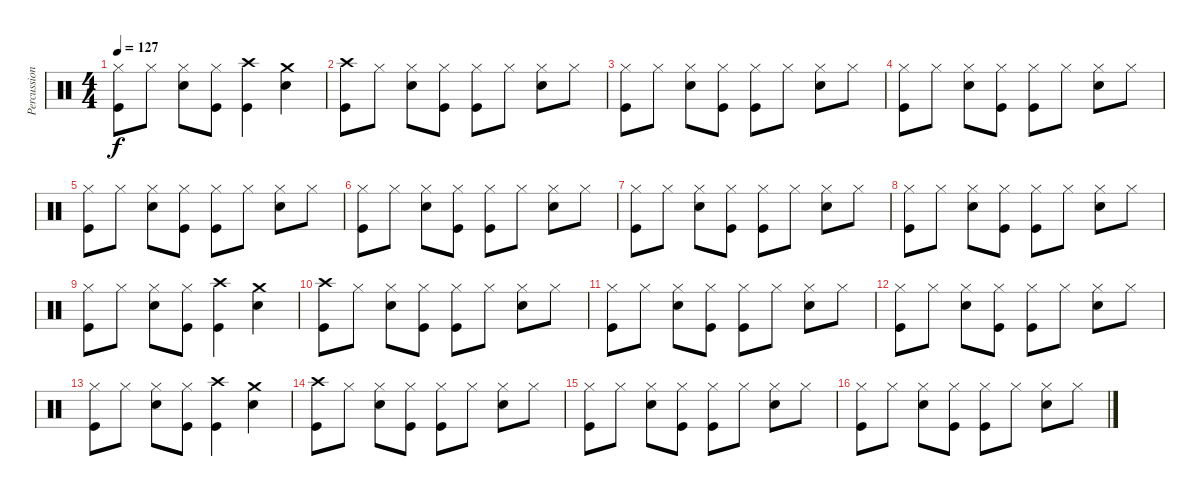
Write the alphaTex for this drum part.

\track ("Percussions" "Percussion") {instrument percussion}
\staff {score}
\articulation defaults
\ts (4 4)
\tempo 127
\clef neutral
\ks c
("Hi-Hat (closed)" "Kick (hit)").8{dy f} "Hi-Hat (closed)".8 ("Hi-Hat (closed)" "Snare (hit) 2").8 ("Hi-Hat (closed)" "Kick (hit)").8 ("Crash high (hit)" "Kick (hit)").4 ("Crash medium (hit)" "Snare (hit) 2").4 |
("Crash high (hit)" "Kick (hit)").8 "Hi-Hat (closed)".8 ("Hi-Hat (closed)" "Snare (hit) 2").8 ("Hi-Hat (closed)" "Kick (hit)").8 ("Hi-Hat (closed)" "Kick (hit)").8 "Hi-Hat (closed)".8 ("Hi-Hat (closed)" "Snare (hit) 2").8 "Hi-Hat (closed)".8 |
("Hi-Hat (closed)" "Kick (hit)").8 "Hi-Hat (closed)".8 ("Hi-Hat (closed)" "Snare (hit) 2").8 ("Hi-Hat (closed)" "Kick (hit)").8 ("Hi-Hat (closed)" "Kick (hit)").8 "Hi-Hat (closed)".8 ("Hi-Hat (closed)" "Snare (hit) 2").8 "Hi-Hat (closed)".8 |
("Hi-Hat (closed)" "Kick (hit)").8 "Hi-Hat (closed)".8 ("Hi-Hat (closed)" "Snare (hit) 2").8 ("Hi-Hat (closed)" "Kick (hit)").8 ("Hi-Hat (closed)" "Kick (hit)").8 "Hi-Hat (closed)".8 ("Hi-Hat (closed)" "Snare (hit) 2").8 "Hi-Hat (closed)".8 |
("Hi-Hat (closed)" "Kick (hit)").8 "Hi-Hat (closed)".8 ("Hi-Hat (closed)" "Snare (hit) 2").8 ("Hi-Hat (closed)" "Kick (hit)").8 ("Hi-Hat (closed)" "Kick (hit)").8 "Hi-Hat (closed)".8 ("Hi-Hat (closed)" "Snare (hit) 2").8 "Hi-Hat (closed)".8 |
("Hi-Hat (closed)" "Kick (hit)").8 "Hi-Hat (closed)".8 ("Hi-Hat (closed)" "Snare (hit) 2").8 ("Hi-Hat (closed)" "Kick (hit)").8 ("Hi-Hat (closed)" "Kick (hit)").8 "Hi-Hat (closed)".8 ("Hi-Hat (closed)" "Snare (hit) 2").8 "Hi-Hat (closed)".8 |
("Hi-Hat (closed)" "Kick (hit)").8 "Hi-Hat (closed)".8 ("Hi-Hat (closed)" "Snare (hit) 2").8 ("Hi-Hat (closed)" "Kick (hit)").8 ("Hi-Hat (closed)" "Kick (hit)").8 "Hi-Hat (closed)".8 ("Hi-Hat (closed)" "Snare (hit) 2").8 "Hi-Hat (closed)".8 |
("Hi-Hat (closed)" "Kick (hit)").8 "Hi-Hat (closed)".8 ("Hi-Hat (closed)" "Snare (hit) 2").8 ("Hi-Hat (closed)" "Kick (hit)").8 ("Hi-Hat (closed)" "Kick (hit)").8 "Hi-Hat (closed)".8 ("Hi-Hat (closed)" "Snare (hit) 2").8 "Hi-Hat (closed)".8 |
("Hi-Hat (closed)" "Kick (hit)").8 "Hi-Hat (closed)".8 ("Hi-Hat (closed)" "Snare (hit) 2").8 ("Hi-Hat (closed)" "Kick (hit)").8 ("Crash high (hit)" "Kick (hit)").4 ("Crash medium (hit)" "Snare (hit) 2").4 |
("Crash high (hit)" "Kick (hit)").8 "Hi-Hat (closed)".8 ("Hi-Hat (closed)" "Snare (hit) 2").8 ("Hi-Hat (closed)" "Kick (hit)").8 ("Hi-Hat (closed)" "Kick (hit)").8 "Hi-Hat (closed)".8 ("Hi-Hat (closed)" "Snare (hit) 2").8 "Hi-Hat (closed)".8 |
("Hi-Hat (closed)" "Kick (hit)").8 "Hi-Hat (closed)".8 ("Hi-Hat (closed)" "Snare (hit) 2").8 ("Hi-Hat (closed)" "Kick (hit)").8 ("Hi-Hat (closed)" "Kick (hit)").8 "Hi-Hat (closed)".8 ("Hi-Hat (closed)" "Snare (hit) 2").8 "Hi-Hat (closed)".8 |
("Hi-Hat (closed)" "Kick (hit)").8 "Hi-Hat (closed)".8 ("Hi-Hat (closed)" "Snare (hit) 2").8 ("Hi-Hat (closed)" "Kick (hit)").8 ("Hi-Hat (closed)" "Kick (hit)").8 "Hi-Hat (closed)".8 ("Hi-Hat (closed)" "Snare (hit) 2").8 "Hi-Hat (closed)".8 |
("Hi-Hat (closed)" "Kick (hit)").8 "Hi-Hat (closed)".8 ("Hi-Hat (closed)" "Snare (hit) 2").8 ("Hi-Hat (closed)" "Kick (hit)").8 ("Crash high (hit)" "Kick (hit)").4 ("Crash medium (hit)" "Snare (hit) 2").4 |
("Crash high (hit)" "Kick (hit)").8 "Hi-Hat (closed)".8 ("Hi-Hat (closed)" "Snare (hit) 2").8 ("Hi-Hat (closed)" "Kick (hit)").8 ("Hi-Hat (closed)" "Kick (hit)").8 "Hi-Hat (closed)".8 ("Hi-Hat (closed)" "Snare (hit) 2").8 "Hi-Hat (closed)".8 |
("Hi-Hat (closed)" "Kick (hit)").8{volume 0} "Hi-Hat (closed)".8 ("Hi-Hat (closed)" "Snare (hit) 2").8 ("Hi-Hat (closed)" "Kick (hit)").8 ("Hi-Hat (closed)" "Kick (hit)").8 "Hi-Hat (closed)".8 ("Hi-Hat (closed)" "Snare (hit) 2").8 "Hi-Hat (closed)".8 |
("Hi-Hat (closed)" "Kick (hit)").8 "Hi-Hat (closed)".8 ("Hi-Hat (closed)" "Snare (hit) 2").8 ("Hi-Hat (closed)" "Kick (hit)").8 ("Hi-Hat (closed)" "Kick (hit)").8 "Hi-Hat (closed)".8 ("Hi-Hat (closed)" "Snare (hit) 2").8 "Hi-Hat (closed)".8
